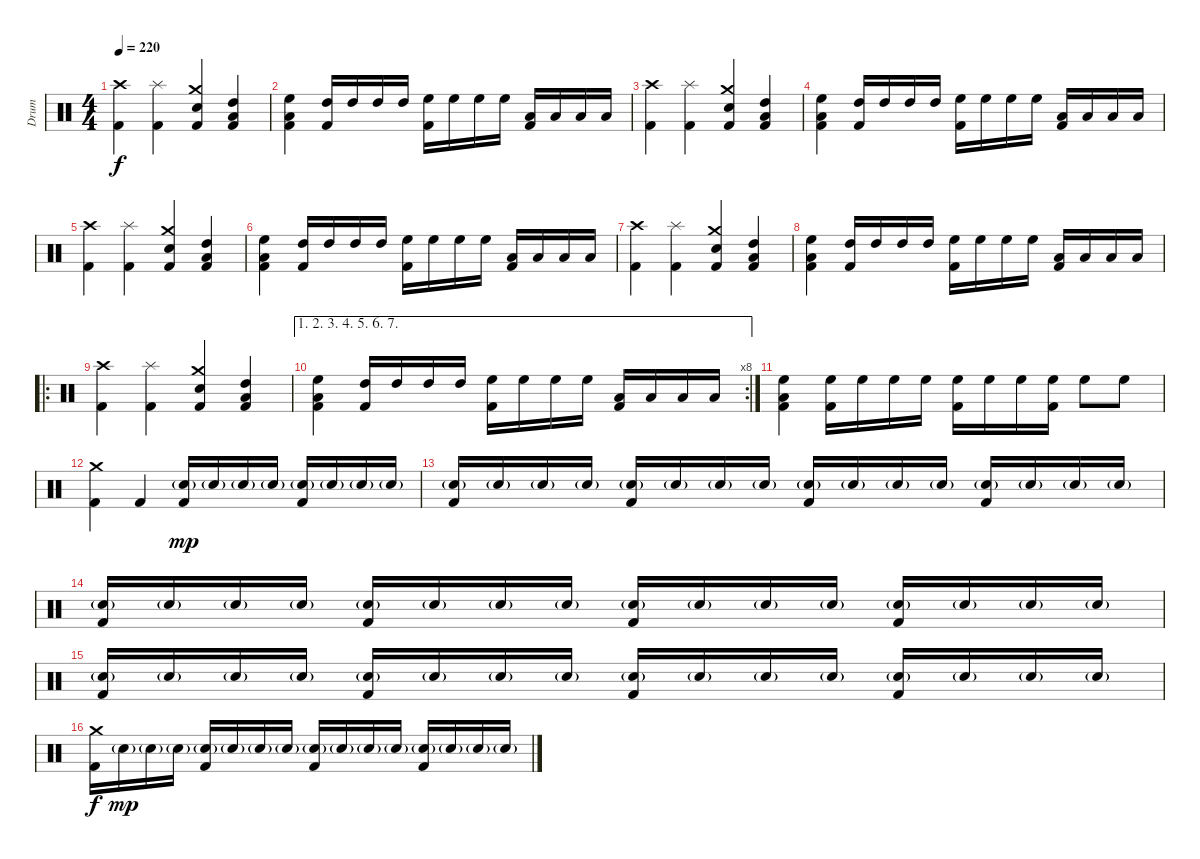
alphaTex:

\track ("Drum" "Drum") {instrument percussion}
\staff {score}
\articulation defaults
\ts (4 4)
\tempo 220
\clef neutral
\ks c
("Crash high (hit)" "Kick (hit) 2").4{dy f} ("Splash (hit)" "Kick (hit) 2").4 ("Crash medium (hit)" "Electric Snare (hit)" "Kick (hit) 2").4 ("High Tom (hit)" "Low Floor Tom (hit)" "Kick (hit) 2").4 |
("High Floor Tom (hit)" "Low Floor Tom (hit)" "Kick (hit) 2").4 ("High Tom (hit)" "Kick (hit) 2").16 "High Tom (hit)".16 "High Tom (hit)".16 "High Tom (hit)".16 ("High Floor Tom (hit)" "Kick (hit) 2").16 "High Floor Tom (hit)".16 "High Floor Tom (hit)".16 "High Floor Tom (hit)".16 ("Low Floor Tom (hit)" "Kick (hit) 2").16 "Low Floor Tom (hit)".16 "Low Floor Tom (hit)".16 "Low Floor Tom (hit)".16 |
("Crash high (hit)" "Kick (hit) 2").4 ("Splash (hit)" "Kick (hit) 2").4 ("Crash medium (hit)" "Electric Snare (hit)" "Kick (hit) 2").4 ("High Tom (hit)" "Low Floor Tom (hit)" "Kick (hit) 2").4 |
("High Floor Tom (hit)" "Low Floor Tom (hit)" "Kick (hit) 2").4 ("High Tom (hit)" "Kick (hit) 2").16 "High Tom (hit)".16 "High Tom (hit)".16 "High Tom (hit)".16 ("High Floor Tom (hit)" "Kick (hit) 2").16 "High Floor Tom (hit)".16 "High Floor Tom (hit)".16 "High Floor Tom (hit)".16 ("Low Floor Tom (hit)" "Kick (hit) 2").16 "Low Floor Tom (hit)".16 "Low Floor Tom (hit)".16 "Low Floor Tom (hit)".16 |
("Crash high (hit)" "Kick (hit) 2").4 ("Splash (hit)" "Kick (hit) 2").4 ("Crash medium (hit)" "Electric Snare (hit)" "Kick (hit) 2").4 ("High Tom (hit)" "Low Floor Tom (hit)" "Kick (hit) 2").4 |
("High Floor Tom (hit)" "Low Floor Tom (hit)" "Kick (hit) 2").4 ("High Tom (hit)" "Kick (hit) 2").16 "High Tom (hit)".16 "High Tom (hit)".16 "High Tom (hit)".16 ("High Floor Tom (hit)" "Kick (hit) 2").16 "High Floor Tom (hit)".16 "High Floor Tom (hit)".16 "High Floor Tom (hit)".16 ("Low Floor Tom (hit)" "Kick (hit) 2").16 "Low Floor Tom (hit)".16 "Low Floor Tom (hit)".16 "Low Floor Tom (hit)".16 |
("Crash high (hit)" "Kick (hit) 2").4 ("Splash (hit)" "Kick (hit) 2").4 ("Crash medium (hit)" "Electric Snare (hit)" "Kick (hit) 2").4 ("High Tom (hit)" "Low Floor Tom (hit)" "Kick (hit) 2").4 |
("High Floor Tom (hit)" "Low Floor Tom (hit)" "Kick (hit) 2").4 ("High Tom (hit)" "Kick (hit) 2").16 "High Tom (hit)".16 "High Tom (hit)".16 "High Tom (hit)".16 ("High Floor Tom (hit)" "Kick (hit) 2").16 "High Floor Tom (hit)".16 "High Floor Tom (hit)".16 "High Floor Tom (hit)".16 ("Low Floor Tom (hit)" "Kick (hit) 2").16 "Low Floor Tom (hit)".16 "Low Floor Tom (hit)".16 "Low Floor Tom (hit)".16 |
\ro
("Crash high (hit)" "Kick (hit) 2").4 ("Splash (hit)" "Kick (hit) 2").4 ("Crash medium (hit)" "Electric Snare (hit)" "Kick (hit) 2").4 ("High Tom (hit)" "Low Floor Tom (hit)" "Kick (hit) 2").4 |
\ae (1 2 3 4 5 6 7)
\rc 8
("High Floor Tom (hit)" "Low Floor Tom (hit)" "Kick (hit) 2").4 ("High Tom (hit)" "Kick (hit) 2").16 "High Tom (hit)".16 "High Tom (hit)".16 "High Tom (hit)".16 ("High Floor Tom (hit)" "Kick (hit) 2").16 "High Floor Tom (hit)".16 "High Floor Tom (hit)".16 "High Floor Tom (hit)".16 ("Low Floor Tom (hit)" "Kick (hit) 2").16 "Low Floor Tom (hit)".16 "Low Floor Tom (hit)".16 "Low Floor Tom (hit)".16 |
("High Floor Tom (hit)" "Low Floor Tom (hit)" "Kick (hit) 2").4 ("High Floor Tom (hit)" "Kick (hit) 2").16 "High Floor Tom (hit)".16 "High Floor Tom (hit)".16 "High Floor Tom (hit)".16 ("High Floor Tom (hit)" "Kick (hit) 2").16 "High Floor Tom (hit)".16 "High Floor Tom (hit)".16 ("High Floor Tom (hit)" "Kick (hit) 2").16 "High Floor Tom (hit)".8 "High Floor Tom (hit)".8 |
("Crash medium (hit)" "Kick (hit) 2").4 "Kick (hit) 2".4 ("Electric Snare (hit)"{g} "Kick (hit) 2").16{dy mp} "Electric Snare (hit)"{g}.16 "Electric Snare (hit)"{g}.16 "Electric Snare (hit)"{g}.16 ("Electric Snare (hit)"{g} "Kick (hit) 2").16 "Electric Snare (hit)"{g}.16 "Electric Snare (hit)"{g}.16 "Electric Snare (hit)"{g}.16 |
("Electric Snare (hit)"{g} "Kick (hit) 2").16 "Electric Snare (hit)"{g}.16 "Electric Snare (hit)"{g}.16 "Electric Snare (hit)"{g}.16 ("Electric Snare (hit)"{g} "Kick (hit) 2").16 "Electric Snare (hit)"{g}.16 "Electric Snare (hit)"{g}.16 "Electric Snare (hit)"{g}.16 ("Electric Snare (hit)"{g} "Kick (hit) 2").16 "Electric Snare (hit)"{g}.16 "Electric Snare (hit)"{g}.16 "Electric Snare (hit)"{g}.16 ("Electric Snare (hit)"{g} "Kick (hit) 2").16 "Electric Snare (hit)"{g}.16 "Electric Snare (hit)"{g}.16 "Electric Snare (hit)"{g}.16 |
("Electric Snare (hit)"{g} "Kick (hit) 2").16 "Electric Snare (hit)"{g}.16 "Electric Snare (hit)"{g}.16 "Electric Snare (hit)"{g}.16 ("Electric Snare (hit)"{g} "Kick (hit) 2").16 "Electric Snare (hit)"{g}.16 "Electric Snare (hit)"{g}.16 "Electric Snare (hit)"{g}.16 ("Electric Snare (hit)"{g} "Kick (hit) 2").16 "Electric Snare (hit)"{g}.16 "Electric Snare (hit)"{g}.16 "Electric Snare (hit)"{g}.16 ("Electric Snare (hit)"{g} "Kick (hit) 2").16 "Electric Snare (hit)"{g}.16 "Electric Snare (hit)"{g}.16 "Electric Snare (hit)"{g}.16 |
("Electric Snare (hit)"{g} "Kick (hit) 2").16 "Electric Snare (hit)"{g}.16 "Electric Snare (hit)"{g}.16 "Electric Snare (hit)"{g}.16 ("Electric Snare (hit)"{g} "Kick (hit) 2").16 "Electric Snare (hit)"{g}.16 "Electric Snare (hit)"{g}.16 "Electric Snare (hit)"{g}.16 ("Electric Snare (hit)"{g} "Kick (hit) 2").16 "Electric Snare (hit)"{g}.16 "Electric Snare (hit)"{g}.16 "Electric Snare (hit)"{g}.16 ("Electric Snare (hit)"{g} "Kick (hit) 2").16 "Electric Snare (hit)"{g}.16 "Electric Snare (hit)"{g}.16 "Electric Snare (hit)"{g}.16 |
("Crash medium (hit)" "Kick (hit) 2").16{dy f} "Electric Snare (hit)"{g}.16{dy mp} "Electric Snare (hit)"{g}.16 "Electric Snare (hit)"{g}.16 ("Electric Snare (hit)"{g} "Kick (hit) 2").16 "Electric Snare (hit)"{g}.16 "Electric Snare (hit)"{g}.16 "Electric Snare (hit)"{g}.16 ("Electric Snare (hit)"{g} "Kick (hit) 2").16 "Electric Snare (hit)"{g}.16 "Electric Snare (hit)"{g}.16 "Electric Snare (hit)"{g}.16 ("Electric Snare (hit)"{g} "Kick (hit) 2").16 "Electric Snare (hit)"{g}.16 "Electric Snare (hit)"{g}.16 "Electric Snare (hit)"{g}.16
